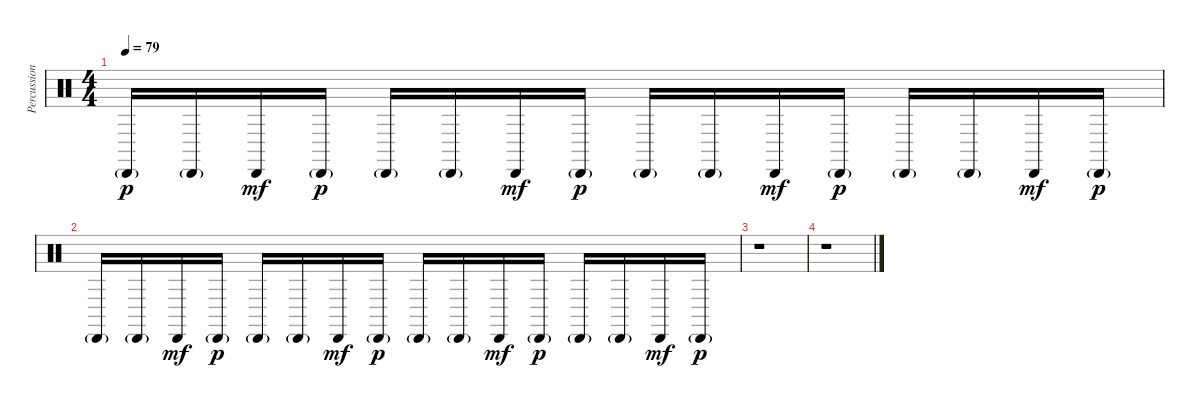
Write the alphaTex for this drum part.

\track ("Percussion Overdubs" "Percussion") {instrument percussion}
\staff {score}
\articulation defaults
\ts (4 4)
\tempo 79
\clef neutral
\ks c "Cabasa (hit)"{g}.16{dy p} "Cabasa (hit)"{g}.16 "Cabasa (hit)".16{dy mf} "Cabasa (hit)"{g}.16{dy p} "Cabasa (hit)"{g}.16 "Cabasa (hit)"{g}.16 "Cabasa (hit)".16{dy mf} "Cabasa (hit)"{g}.16{dy p} "Cabasa (hit)"{g}.16 "Cabasa (hit)"{g}.16 "Cabasa (hit)".16{dy mf} "Cabasa (hit)"{g}.16{dy p} "Cabasa (hit)"{g}.16 "Cabasa (hit)"{g}.16 "Cabasa (hit)".16{dy mf} "Cabasa (hit)"{g}.16{dy p}
|
"Cabasa (hit)"{g}.16 "Cabasa (hit)"{g}.16 "Cabasa (hit)".16{dy mf} "Cabasa (hit)"{g}.16{dy p} "Cabasa (hit)"{g}.16 "Cabasa (hit)"{g}.16 "Cabasa (hit)".16{dy mf} "Cabasa (hit)"{g}.16{dy p} "Cabasa (hit)"{g}.16 "Cabasa (hit)"{g}.16 "Cabasa (hit)".16{dy mf} "Cabasa (hit)"{g}.16{dy p} "Cabasa (hit)"{g}.16 "Cabasa (hit)"{g}.16 "Cabasa (hit)".16{dy mf} "Cabasa (hit)"{g}.16{dy p} |
r.1 |
r.1
